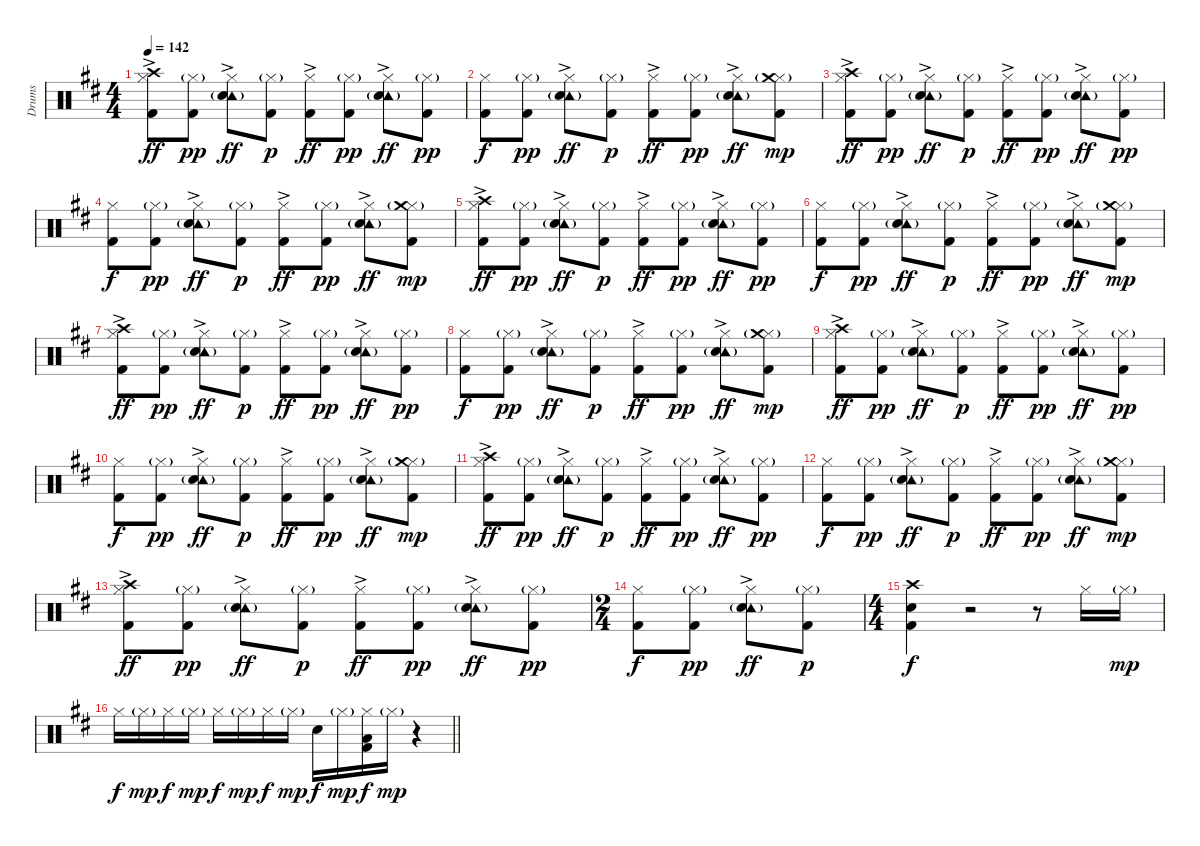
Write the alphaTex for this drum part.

\track ("Drums" "Drums") {instrument percussion}
\staff {score}
\articulation defaults
\ts (4 4)
\tempo 142
\clef neutral
\ks d
("Hi-Hat (closed)" "Crash high (hit)" "Kick (hit) 2"{ac}).8{dy ff} ("Hi-Hat (closed)"{g} "Kick (hit) 2").8{dy pp} ("Hi-Hat (closed)" "Tambourine (hit)"{g} "Snare (hit) 2"{ac}).8{dy ff} ("Hi-Hat (closed)"{g} "Kick (hit) 2").8{dy p} ("Hi-Hat (closed)" "Kick (hit) 2"{ac}).8{dy ff} ("Hi-Hat (closed)"{g} "Kick (hit) 2").8{dy pp} ("Hi-Hat (closed)" "Tambourine (hit)"{g} "Snare (hit) 2"{ac}).8{dy ff} ("Hi-Hat (closed)"{g} "Kick (hit) 2").8{dy pp} |
("Hi-Hat (closed)" "Kick (hit) 2").8{dy f} ("Hi-Hat (closed)"{g} "Kick (hit) 2").8{dy pp} ("Hi-Hat (closed)" "Tambourine (hit)"{g} "Snare (hit) 2"{ac}).8{dy ff} ("Hi-Hat (closed)"{g} "Kick (hit) 2").8{dy p} ("Hi-Hat (closed)" "Kick (hit) 2"{ac}).8{dy ff} ("Hi-Hat (closed)"{g} "Kick (hit) 2").8{dy pp} ("Hi-Hat (closed)" "Tambourine (hit)"{g} "Snare (hit) 2"{ac}).8{dy ff} ("Hi-Hat (closed)"{g} "Crash medium (hit)"{g} "Kick (hit) 2").8{dy mp} |
("Hi-Hat (closed)" "Crash high (hit)" "Kick (hit) 2"{ac}).8{dy ff} ("Hi-Hat (closed)"{g} "Kick (hit) 2").8{dy pp} ("Hi-Hat (closed)" "Tambourine (hit)"{g} "Snare (hit) 2"{ac}).8{dy ff} ("Hi-Hat (closed)"{g} "Kick (hit) 2").8{dy p} ("Hi-Hat (closed)" "Kick (hit) 2"{ac}).8{dy ff} ("Hi-Hat (closed)"{g} "Kick (hit) 2").8{dy pp} ("Hi-Hat (closed)" "Tambourine (hit)"{g} "Snare (hit) 2"{ac}).8{dy ff} ("Hi-Hat (closed)"{g} "Kick (hit) 2").8{dy pp} |
("Hi-Hat (closed)" "Kick (hit) 2").8{dy f} ("Hi-Hat (closed)"{g} "Kick (hit) 2").8{dy pp} ("Hi-Hat (closed)" "Tambourine (hit)"{g} "Snare (hit) 2"{ac}).8{dy ff} ("Hi-Hat (closed)"{g} "Kick (hit) 2").8{dy p} ("Hi-Hat (closed)" "Kick (hit) 2"{ac}).8{dy ff} ("Hi-Hat (closed)"{g} "Kick (hit) 2").8{dy pp} ("Hi-Hat (closed)" "Tambourine (hit)"{g} "Snare (hit) 2"{ac}).8{dy ff} ("Hi-Hat (closed)"{g} "Crash medium (hit)"{g} "Kick (hit) 2").8{dy mp} |
("Hi-Hat (closed)" "Crash high (hit)" "Kick (hit) 2"{ac}).8{dy ff} ("Hi-Hat (closed)"{g} "Kick (hit) 2").8{dy pp} ("Hi-Hat (closed)" "Tambourine (hit)"{g} "Snare (hit) 2"{ac}).8{dy ff} ("Hi-Hat (closed)"{g} "Kick (hit) 2").8{dy p} ("Hi-Hat (closed)" "Kick (hit) 2"{ac}).8{dy ff} ("Hi-Hat (closed)"{g} "Kick (hit) 2").8{dy pp} ("Hi-Hat (closed)" "Tambourine (hit)"{g} "Snare (hit) 2"{ac}).8{dy ff} ("Hi-Hat (closed)"{g} "Kick (hit) 2").8{dy pp} |
("Hi-Hat (closed)" "Kick (hit) 2").8{dy f} ("Hi-Hat (closed)"{g} "Kick (hit) 2").8{dy pp} ("Hi-Hat (closed)" "Tambourine (hit)"{g} "Snare (hit) 2"{ac}).8{dy ff} ("Hi-Hat (closed)"{g} "Kick (hit) 2").8{dy p} ("Hi-Hat (closed)" "Kick (hit) 2"{ac}).8{dy ff} ("Hi-Hat (closed)"{g} "Kick (hit) 2").8{dy pp} ("Hi-Hat (closed)" "Tambourine (hit)"{g} "Snare (hit) 2"{ac}).8{dy ff} ("Hi-Hat (closed)"{g} "Crash medium (hit)"{g} "Kick (hit) 2").8{dy mp} |
("Hi-Hat (closed)" "Crash high (hit)" "Kick (hit) 2"{ac}).8{dy ff} ("Hi-Hat (closed)"{g} "Kick (hit) 2").8{dy pp} ("Hi-Hat (closed)" "Tambourine (hit)"{g} "Snare (hit) 2"{ac}).8{dy ff} ("Hi-Hat (closed)"{g} "Kick (hit) 2").8{dy p} ("Hi-Hat (closed)" "Kick (hit) 2"{ac}).8{dy ff} ("Hi-Hat (closed)"{g} "Kick (hit) 2").8{dy pp} ("Hi-Hat (closed)" "Tambourine (hit)"{g} "Snare (hit) 2"{ac}).8{dy ff} ("Hi-Hat (closed)"{g} "Kick (hit) 2").8{dy pp} |
("Hi-Hat (closed)" "Kick (hit) 2").8{dy f} ("Hi-Hat (closed)"{g} "Kick (hit) 2").8{dy pp} ("Hi-Hat (closed)" "Tambourine (hit)"{g} "Snare (hit) 2"{ac}).8{dy ff} ("Hi-Hat (closed)"{g} "Kick (hit) 2").8{dy p} ("Hi-Hat (closed)" "Kick (hit) 2"{ac}).8{dy ff} ("Hi-Hat (closed)"{g} "Kick (hit) 2").8{dy pp} ("Hi-Hat (closed)" "Tambourine (hit)"{g} "Snare (hit) 2"{ac}).8{dy ff} ("Hi-Hat (closed)"{g} "Crash medium (hit)"{g} "Kick (hit) 2").8{dy mp} |
("Hi-Hat (closed)" "Crash high (hit)" "Kick (hit) 2"{ac}).8{dy ff} ("Hi-Hat (closed)"{g} "Kick (hit) 2").8{dy pp} ("Hi-Hat (closed)" "Tambourine (hit)"{g} "Snare (hit) 2"{ac}).8{dy ff} ("Hi-Hat (closed)"{g} "Kick (hit) 2").8{dy p} ("Hi-Hat (closed)" "Kick (hit) 2"{ac}).8{dy ff} ("Hi-Hat (closed)"{g} "Kick (hit) 2").8{dy pp} ("Hi-Hat (closed)" "Tambourine (hit)"{g} "Snare (hit) 2"{ac}).8{dy ff} ("Hi-Hat (closed)"{g} "Kick (hit) 2").8{dy pp} |
("Hi-Hat (closed)" "Kick (hit) 2").8{dy f} ("Hi-Hat (closed)"{g} "Kick (hit) 2").8{dy pp} ("Hi-Hat (closed)" "Tambourine (hit)"{g} "Snare (hit) 2"{ac}).8{dy ff} ("Hi-Hat (closed)"{g} "Kick (hit) 2").8{dy p} ("Hi-Hat (closed)" "Kick (hit) 2"{ac}).8{dy ff} ("Hi-Hat (closed)"{g} "Kick (hit) 2").8{dy pp} ("Hi-Hat (closed)" "Tambourine (hit)"{g} "Snare (hit) 2"{ac}).8{dy ff} ("Hi-Hat (closed)"{g} "Crash medium (hit)"{g} "Kick (hit) 2").8{dy mp} |
("Hi-Hat (closed)" "Crash high (hit)" "Kick (hit) 2"{ac}).8{dy ff} ("Hi-Hat (closed)"{g} "Kick (hit) 2").8{dy pp} ("Hi-Hat (closed)" "Tambourine (hit)"{g} "Snare (hit) 2"{ac}).8{dy ff} ("Hi-Hat (closed)"{g} "Kick (hit) 2").8{dy p} ("Hi-Hat (closed)" "Kick (hit) 2"{ac}).8{dy ff} ("Hi-Hat (closed)"{g} "Kick (hit) 2").8{dy pp} ("Hi-Hat (closed)" "Tambourine (hit)"{g} "Snare (hit) 2"{ac}).8{dy ff} ("Hi-Hat (closed)"{g} "Kick (hit) 2").8{dy pp} |
("Hi-Hat (closed)" "Kick (hit) 2").8{dy f} ("Hi-Hat (closed)"{g} "Kick (hit) 2").8{dy pp} ("Hi-Hat (closed)" "Tambourine (hit)"{g} "Snare (hit) 2"{ac}).8{dy ff} ("Hi-Hat (closed)"{g} "Kick (hit) 2").8{dy p} ("Hi-Hat (closed)" "Kick (hit) 2"{ac}).8{dy ff} ("Hi-Hat (closed)"{g} "Kick (hit) 2").8{dy pp} ("Hi-Hat (closed)" "Tambourine (hit)"{g} "Snare (hit) 2"{ac}).8{dy ff} ("Hi-Hat (closed)"{g} "Crash medium (hit)"{g} "Kick (hit) 2").8{dy mp} |
("Hi-Hat (closed)" "Crash high (hit)" "Kick (hit) 2"{ac}).8{dy ff} ("Hi-Hat (closed)"{g} "Kick (hit) 2").8{dy pp} ("Hi-Hat (closed)" "Tambourine (hit)"{g} "Snare (hit) 2"{ac}).8{dy ff} ("Hi-Hat (closed)"{g} "Kick (hit) 2").8{dy p} ("Hi-Hat (closed)" "Kick (hit) 2"{ac}).8{dy ff} ("Hi-Hat (closed)"{g} "Kick (hit) 2").8{dy pp} ("Hi-Hat (closed)" "Tambourine (hit)"{g} "Snare (hit) 2"{ac}).8{dy ff} ("Hi-Hat (closed)"{g} "Kick (hit) 2").8{dy pp} |
\ts (2 4)
("Hi-Hat (closed)" "Kick (hit) 2").8{dy f} ("Hi-Hat (closed)"{g} "Kick (hit) 2").8{dy pp} ("Hi-Hat (closed)" "Tambourine (hit)"{g} "Snare (hit) 2"{ac}).8{dy ff} ("Hi-Hat (closed)"{g} "Kick (hit) 2").8{dy p} |
\ts (4 4)
("Crash high (hit)" "Snare (hit) 2" "Kick (hit) 2").4{dy f} r.2 r.8 "Hi-Hat (closed)".16 "Hi-Hat (closed)"{g}.16{dy mp} |
\barLineRight lightlight "Hi-Hat (closed)".16{dy f} "Hi-Hat (closed)"{g}.16{dy mp} "Hi-Hat (closed)".16{dy f} "Hi-Hat (closed)"{g}.16{dy mp} "Hi-Hat (closed)".16{dy f} "Hi-Hat (closed)"{g}.16{dy mp} "Hi-Hat (closed)".16{dy f} "Hi-Hat (closed)"{g}.16{dy mp} "Snare (hit) 2".16{dy f} "Hi-Hat (closed)"{g}.16{dy mp}
("Hi-Hat (closed)" "Low Floor Tom (hit)" "Kick (hit) 2").16{dy f} "Hi-Hat (closed)"{g}.16{dy mp} r.4
